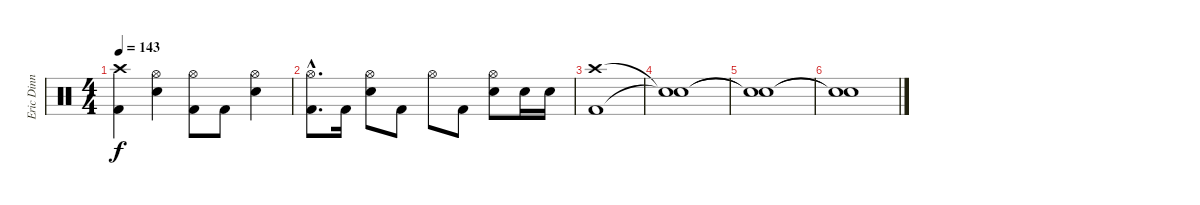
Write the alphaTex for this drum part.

\track ("Eric Dinn" "Eric Dinn") {instrument percussion}
\staff {score}
\articulation defaults
\ts (4 4)
\tempo 143
\clef neutral
\ks c
("Crash high (hit)" "Kick (hit) 2").4{dy f} ("Hi-Hat (open)" "Snare (hit) 2").4 ("Hi-Hat (open)" "Kick (hit) 2").8 "Kick (hit) 2".8 ("Hi-Hat (open)" "Snare (hit) 2").4 |
("Hi-Hat (open)"{hac} "Kick (hit) 2"{hac}).8{d} "Kick (hit) 2".16 ("Hi-Hat (open)" "Snare (hit) 2").8 "Kick (hit) 2".8 "Hi-Hat (open)".8 "Kick (hit) 2".8 ("Hi-Hat (open)" "Snare (hit) 2").8 "Snare (hit) 2".16 "Snare (hit) 2".16 |
("Crash high (hit)" "Kick (hit) 2").1 |
("Snare (hit)"{t} "Snare (hit)"{t}).1 |
("Snare (hit)"{t} "Snare (hit)"{t}).1 |
("Snare (hit)"{t} "Snare (hit)"{t}).1
